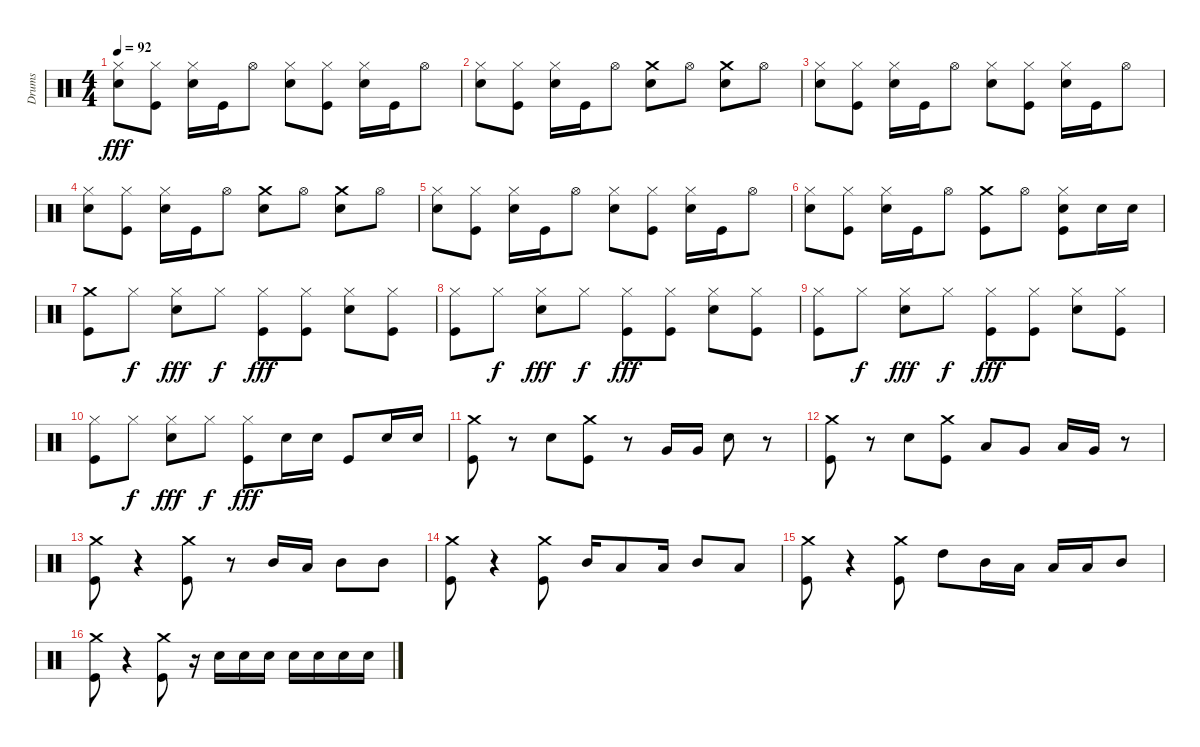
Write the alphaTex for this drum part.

\track ("Drums" "Drums") {instrument percussion}
\staff {score}
\articulation defaults
\ts (4 4)
\tempo 92
\clef neutral
\ks c
("Hi-Hat (closed)" "Snare (hit) 2").8{dy fff} ("Hi-Hat (closed)" "Kick (hit)").8 ("Hi-Hat (closed)" "Snare (hit) 2").16 "Kick (hit)".16 "Hi-Hat (open)".8 ("Hi-Hat (closed)" "Snare (hit) 2").8 ("Hi-Hat (closed)" "Kick (hit)").8 ("Hi-Hat (closed)" "Snare (hit) 2").16 "Kick (hit)".16 "Hi-Hat (open)".8 |
("Hi-Hat (closed)" "Snare (hit) 2").8 ("Hi-Hat (closed)" "Kick (hit)").8 ("Hi-Hat (closed)" "Snare (hit) 2").16 "Kick (hit)".16 "Hi-Hat (open)".8 ("Snare (hit) 2" "Crash medium (hit)").8 "Hi-Hat (open)".8 ("Snare (hit) 2" "Crash medium (hit)").8 "Hi-Hat (open)".8 |
("Hi-Hat (closed)" "Snare (hit) 2").8 ("Hi-Hat (closed)" "Kick (hit)").8 ("Hi-Hat (closed)" "Snare (hit) 2").16 "Kick (hit)".16 "Hi-Hat (open)".8 ("Hi-Hat (closed)" "Snare (hit) 2").8 ("Hi-Hat (closed)" "Kick (hit)").8 ("Hi-Hat (closed)" "Snare (hit) 2").16 "Kick (hit)".16 "Hi-Hat (open)".8 |
("Hi-Hat (closed)" "Snare (hit) 2").8 ("Hi-Hat (closed)" "Kick (hit)").8 ("Hi-Hat (closed)" "Snare (hit) 2").16 "Kick (hit)".16 "Hi-Hat (open)".8 ("Snare (hit) 2" "Crash medium (hit)").8 "Hi-Hat (open)".8 ("Snare (hit) 2" "Crash medium (hit)").8 "Hi-Hat (open)".8 |
("Hi-Hat (closed)" "Snare (hit) 2").8 ("Hi-Hat (closed)" "Kick (hit)").8 ("Hi-Hat (closed)" "Snare (hit) 2").16 "Kick (hit)".16 "Hi-Hat (open)".8 ("Hi-Hat (closed)" "Snare (hit) 2").8 ("Hi-Hat (closed)" "Kick (hit)").8 ("Hi-Hat (closed)" "Snare (hit) 2").16 "Kick (hit)".16 "Hi-Hat (open)".8 |
("Hi-Hat (closed)" "Snare (hit) 2").8 ("Hi-Hat (closed)" "Kick (hit)").8 ("Hi-Hat (closed)" "Snare (hit) 2").16 "Kick (hit)".16 "Hi-Hat (open)".8 ("Crash medium (hit)" "Kick (hit)").8 "Hi-Hat (open)".8 ("Hi-Hat (closed)" "Snare (hit) 2" "Kick (hit)").8 "Snare (hit) 2".16 "Snare (hit) 2".16 |
("Crash medium (hit)" "Kick (hit)").8 "Hi-Hat (closed)".8{dy f} ("Hi-Hat (closed)" "Snare (hit) 2").8{dy fff} "Hi-Hat (closed)".8{dy f} ("Hi-Hat (closed)" "Kick (hit)").8{dy fff} ("Hi-Hat (closed)" "Kick (hit)").8 ("Hi-Hat (closed)" "Snare (hit) 2").8 ("Hi-Hat (closed)" "Kick (hit)").8 |
("Hi-Hat (closed)" "Kick (hit)").8 "Hi-Hat (closed)".8{dy f} ("Hi-Hat (closed)" "Snare (hit) 2").8{dy fff} "Hi-Hat (closed)".8{dy f} ("Hi-Hat (closed)" "Kick (hit)").8{dy fff} ("Hi-Hat (closed)" "Kick (hit)").8 ("Hi-Hat (closed)" "Snare (hit) 2").8 ("Hi-Hat (closed)" "Kick (hit)").8 |
("Hi-Hat (closed)" "Kick (hit)").8 "Hi-Hat (closed)".8{dy f} ("Hi-Hat (closed)" "Snare (hit) 2").8{dy fff} "Hi-Hat (closed)".8{dy f} ("Hi-Hat (closed)" "Kick (hit)").8{dy fff} ("Hi-Hat (closed)" "Kick (hit)").8 ("Hi-Hat (closed)" "Snare (hit) 2").8 ("Hi-Hat (closed)" "Kick (hit)").8 |
("Hi-Hat (closed)" "Kick (hit)").8 "Hi-Hat (closed)".8{dy f} ("Hi-Hat (closed)" "Snare (hit) 2").8{dy fff} "Hi-Hat (closed)".8{dy f} ("Hi-Hat (closed)" "Kick (hit)").8{dy fff} "Snare (hit) 2".16 "Snare (hit) 2".16 "Kick (hit)".8 "Snare (hit) 2".16 "Snare (hit) 2".16 |
("Crash medium (hit)" "Kick (hit)").8 r.8 "Snare (hit) 2".8 ("Crash medium (hit)" "Kick (hit)").8 r.8 "Very Low Tom (hit)".16 "Very Low Tom (hit)".16 "Snare (hit) 2".8 r.8 |
("Crash medium (hit)" "Kick (hit)").8 r.8 "Snare (hit) 2".8 ("Crash medium (hit)" "Kick (hit)").8 "Low Tom (hit)".8 "Very Low Tom (hit)".8 "Low Tom (hit)".16 "Very Low Tom (hit)".16 r.8 |
("Crash medium (hit)" "Kick (hit)").8 r.4 ("Crash medium (hit)" "Kick (hit)").8 r.8 "Mid Tom (hit)".16 "Low Tom (hit)".16 "Mid Tom (hit)".8 "Mid Tom (hit)".8 |
("Crash medium (hit)" "Kick (hit)").8 r.4 ("Crash medium (hit)" "Kick (hit)").8 "Mid Tom (hit)".16 "Low Tom (hit)".8 "Low Tom (hit)".16 "Mid Tom (hit)".8 "Low Tom (hit)".8 |
("Crash medium (hit)" "Kick (hit)").8 r.4 ("Crash medium (hit)" "Kick (hit)").8 "High Tom (hit)".8 "Mid Tom (hit)".16 "Low Tom (hit)".16 "Low Tom (hit)".16 "Low Tom (hit)".16 "Mid Tom (hit)".8 |
("Crash medium (hit)" "Kick (hit)").8 r.4 ("Crash medium (hit)" "Kick (hit)").8 r.16 "Snare (hit) 2".16 "Snare (hit) 2".16 "Snare (hit) 2".16 "Snare (hit) 2".16 "Snare (hit) 2".16 "Snare (hit) 2".16 "Snare (hit) 2".16
